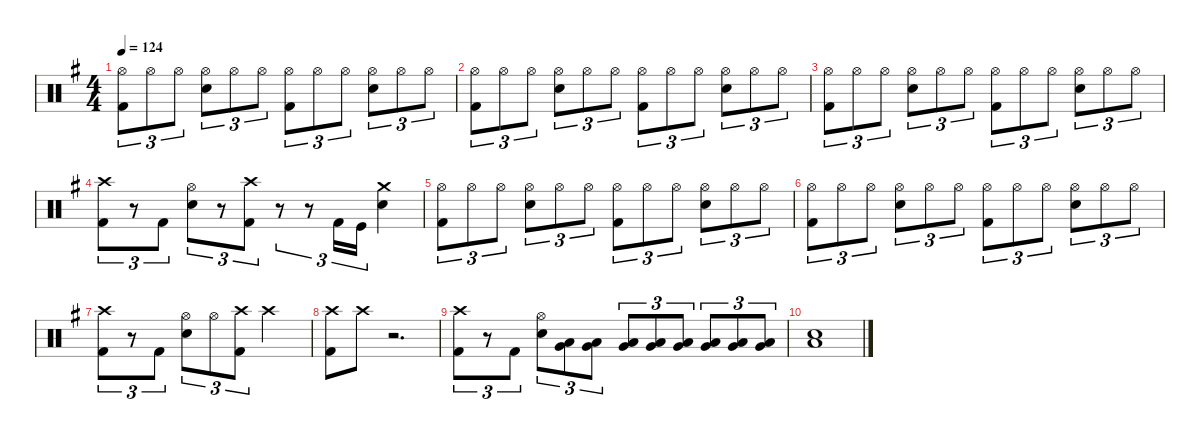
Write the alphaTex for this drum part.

\defaultSystemsLayout 4
\hideDynamics
\bracketExtendMode nobrackets
\singleTrackTrackNamePolicy hidden
\multiTrackTrackNamePolicy hidden
\otherSystemsTrackNameOrientation horizontal
\track ("Drums" "drm.") {defaultSystemsLayout 4 instrument percussion}
\staff {score}
\articulation defaults
\ts (4 4)
\tempo 124
\clef neutral
\ks eminor
("Hi-Hat (open)"{acc forcenatural} "Kick (hit) 2"{acc forcenatural}).8{tu (3 2) dy mf beam Down} "Hi-Hat (open)"{acc forcenatural}.8{tu (3 2) beam Down} "Hi-Hat (open)"{acc forcenatural}.8{tu (3 2) beam Down} ("Hi-Hat (open)"{acc forcenatural} "Snare (hit) 2"{acc forcenatural}).8{tu (3 2) beam Down} "Hi-Hat (open)"{acc forcenatural}.8{tu (3 2) beam Down} "Hi-Hat (open)"{acc forcenatural}.8{tu (3 2) beam Down} ("Hi-Hat (open)"{acc forcenatural} "Kick (hit) 2"{acc forcenatural}).8{tu (3 2) beam Down} "Hi-Hat (open)"{acc forcenatural}.8{tu (3 2) beam Down} "Hi-Hat (open)"{acc forcenatural}.8{tu (3 2) beam Down} ("Hi-Hat (open)"{acc forcenatural} "Snare (hit) 2"{acc forcenatural}).8{tu (3 2) beam Down} "Hi-Hat (open)"{acc forcenatural}.8{tu (3 2) beam Down} "Hi-Hat (open)"{acc forcenatural}.8{tu (3 2) beam Down} |
("Hi-Hat (open)"{acc forcenatural} "Kick (hit) 2"{acc forcenatural}).8{tu (3 2) beam Down} "Hi-Hat (open)"{acc forcenatural}.8{tu (3 2) beam Down} "Hi-Hat (open)"{acc forcenatural}.8{tu (3 2) beam Down} ("Hi-Hat (open)"{acc forcenatural} "Snare (hit) 2"{acc forcenatural}).8{tu (3 2) beam Down} "Hi-Hat (open)"{acc forcenatural}.8{tu (3 2) beam Down} "Hi-Hat (open)"{acc forcenatural}.8{tu (3 2) beam Down} ("Hi-Hat (open)"{acc forcenatural} "Kick (hit) 2"{acc forcenatural}).8{tu (3 2) beam Down} "Hi-Hat (open)"{acc forcenatural}.8{tu (3 2) beam Down} "Hi-Hat (open)"{acc forcenatural}.8{tu (3 2) beam Down} ("Hi-Hat (open)"{acc forcenatural} "Snare (hit) 2"{acc forcenatural}).8{tu (3 2) beam Down} "Hi-Hat (open)"{acc forcenatural}.8{tu (3 2) beam Down} "Hi-Hat (open)"{acc forcenatural}.8{tu (3 2) beam Down} |
("Hi-Hat (open)"{acc forcenatural} "Kick (hit) 2"{acc forcenatural}).8{tu (3 2) beam Down} "Hi-Hat (open)"{acc forcenatural}.8{tu (3 2) beam Down} "Hi-Hat (open)"{acc forcenatural}.8{tu (3 2) beam Down} ("Hi-Hat (open)"{acc forcenatural} "Snare (hit) 2"{acc forcenatural}).8{tu (3 2) beam Down} "Hi-Hat (open)"{acc forcenatural}.8{tu (3 2) beam Down} "Hi-Hat (open)"{acc forcenatural}.8{tu (3 2) beam Down} ("Hi-Hat (open)"{acc forcenatural} "Kick (hit) 2"{acc forcenatural}).8{tu (3 2) beam Down} "Hi-Hat (open)"{acc forcenatural}.8{tu (3 2) beam Down} "Hi-Hat (open)"{acc forcenatural}.8{tu (3 2) beam Down} ("Hi-Hat (open)"{acc forcenatural} "Snare (hit) 2"{acc forcenatural}).8{tu (3 2) beam Down} "Hi-Hat (open)"{acc forcenatural}.8{tu (3 2) beam Down} "Hi-Hat (open)"{acc forcenatural}.8{tu (3 2) beam Down} |
("Crash high (hit)"{acc forcenatural} "Kick (hit) 2"{acc forcenatural}).8{tu (3 2) beam Down} r.8{tu (3 2) beam Down} "Kick (hit) 2"{acc forcenatural}.8{tu (3 2) dy ff beam Down} ("Hi-Hat (open)"{acc forcenatural} "Snare (hit) 2"{acc forcenatural}).8{tu (3 2) dy mf beam Down} r.8{tu (3 2) beam Down} ("Crash high (hit)"{acc forcenatural} "Kick (hit) 2"{acc forcenatural}).8{tu (3 2) beam Down} r.8{tu (3 2) beam Down} r.8{tu (3 2) beam Down} "Kick (hit) 2"{acc forcenatural}.16{tu (3 2) dy ff beam Up} "Kick (hit)"{acc forcenatural}.16{tu (3 2) beam Up} ("Crash medium (hit)"{acc forcenatural} "Snare (hit) 2"{acc forcenatural}).4{dy mf beam Down} |
("Hi-Hat (open)"{acc forcenatural} "Kick (hit) 2"{acc forcenatural}).8{tu (3 2) beam Down} "Hi-Hat (open)"{acc forcenatural}.8{tu (3 2) beam Down} "Hi-Hat (open)"{acc forcenatural}.8{tu (3 2) beam Down} ("Hi-Hat (open)"{acc forcenatural} "Snare (hit) 2"{acc forcenatural}).8{tu (3 2) beam Down} "Hi-Hat (open)"{acc forcenatural}.8{tu (3 2) beam Down} "Hi-Hat (open)"{acc forcenatural}.8{tu (3 2) beam Down} ("Hi-Hat (open)"{acc forcenatural} "Kick (hit) 2"{acc forcenatural}).8{tu (3 2) beam Down} "Hi-Hat (open)"{acc forcenatural}.8{tu (3 2) beam Down} "Hi-Hat (open)"{acc forcenatural}.8{tu (3 2) beam Down} ("Hi-Hat (open)"{acc forcenatural} "Snare (hit) 2"{acc forcenatural}).8{tu (3 2) beam Down} "Hi-Hat (open)"{acc forcenatural}.8{tu (3 2) beam Down} "Hi-Hat (open)"{acc forcenatural}.8{tu (3 2) beam Down} |
("Hi-Hat (open)"{acc forcenatural} "Kick (hit) 2"{acc forcenatural}).8{tu (3 2) beam Down} "Hi-Hat (open)"{acc forcenatural}.8{tu (3 2) beam Down} "Hi-Hat (open)"{acc forcenatural}.8{tu (3 2) beam Down} ("Hi-Hat (open)"{acc forcenatural} "Snare (hit) 2"{acc forcenatural}).8{tu (3 2) beam Down} "Hi-Hat (open)"{acc forcenatural}.8{tu (3 2) beam Down} "Hi-Hat (open)"{acc forcenatural}.8{tu (3 2) beam Down} ("Hi-Hat (open)"{acc forcenatural} "Kick (hit) 2"{acc forcenatural}).8{tu (3 2) beam Down} "Hi-Hat (open)"{acc forcenatural}.8{tu (3 2) beam Down} "Hi-Hat (open)"{acc forcenatural}.8{tu (3 2) beam Down} ("Hi-Hat (open)"{acc forcenatural} "Snare (hit) 2"{acc forcenatural}).8{tu (3 2) beam Down} "Hi-Hat (open)"{acc forcenatural}.8{tu (3 2) beam Down} "Hi-Hat (open)"{acc forcenatural}.8{tu (3 2) beam Down} |
("Crash high (hit)"{acc forcenatural} "Kick (hit) 2"{acc forcenatural}).8{tu (3 2) dy f beam Down} r.8{tu (3 2) beam Down} "Kick (hit) 2"{acc forcenatural}.8{tu (3 2) dy ff beam Down} ("Hi-Hat (open)"{acc forcenatural} "Snare (hit) 2"{acc forcenatural}).8{tu (3 2) dy mf beam Down} "Hi-Hat (open)"{acc forcenatural}.8{tu (3 2) dy p beam Down} ("Crash high (hit)"{acc forcenatural} "Kick (hit) 2"{acc forcenatural}).8{tu (3 2) dy mf beam Down} "Crash high (hit)"{acc forcenatural}.2{dy ppp beam Down} |
("Crash high (hit)"{acc forcenatural} "Kick (hit) 2"{acc forcenatural}).8{dy mf beam Down} "Crash high (hit)"{acc forcenatural}.8{dy ppp beam Down} r.2{d beam Down} |
("Crash high (hit)"{acc forcenatural} "Kick (hit) 2"{acc forcenatural}).8{tu (3 2) dy mf beam Down} r.8{tu (3 2) beam Down} "Kick (hit) 2"{acc forcenatural}.8{tu (3 2) dy ff beam Down} ("Hi-Hat (open)"{acc forcenatural} "Snare (hit) 2"{acc forcenatural}).8{tu (3 2) dy mp beam Down} ("Very Low Tom (hit)"{acc forcenatural} "Low Floor Tom (hit)"{acc forcenatural}).8{tu (3 2) dy pp beam Down} ("Very Low Tom (hit)"{acc forcenatural} "Low Floor Tom (hit)"{acc forcenatural}).8{tu (3 2) dy p beam Down} ("Very Low Tom (hit)"{acc forcenatural} "Low Floor Tom (hit)"{acc forcenatural}).8{tu (3 2) dy mp beam Up} ("Very Low Tom (hit)"{acc forcenatural} "Low Floor Tom (hit)"{acc forcenatural}).8{tu (3 2) dy mf beam Up} ("Very Low Tom (hit)"{acc forcenatural} "Low Floor Tom (hit)"{acc forcenatural}).8{tu (3 2) dy f beam Up} ("Very Low Tom (hit)"{acc forcenatural} "Low Floor Tom (hit)"{acc forcenatural}).8{tu (3 2) beam Up} ("Very Low Tom (hit)"{acc forcenatural} "Low Floor Tom (hit)"{acc forcenatural}).8{tu (3 2) dy ff beam Up} ("Very Low Tom (hit)"{acc forcenatural} "Low Floor Tom (hit)"{acc forcenatural}).8{tu (3 2) beam Up} |
("Low Tom (hit)"{acc forcenatural} "Snare (hit) 2"{acc forcenatural}).1{dy fff beam Down}
